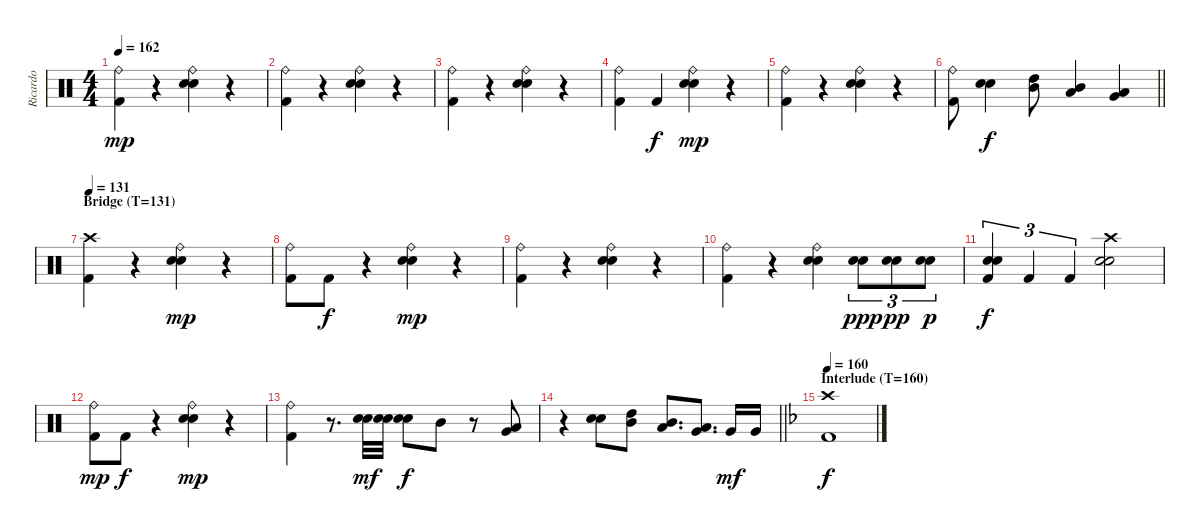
\track ("Ricardo" "Ricardo") {instrument percussion}
\staff {score}
\articulation defaults
\ts (4 4)
\tempo 162
\clef neutral
\ks c
("Ride (bell)" "Kick (hit) 2").4{dy mp} r.4 ("Ride (bell)" "Electric Snare (hit)" "Snare (hit) 2").4 r.4 |
("Ride (bell)" "Kick (hit) 2").4 r.4 ("Ride (bell)" "Electric Snare (hit)" "Snare (hit) 2").4 r.4 |
("Ride (bell)" "Kick (hit) 2").4 r.4 ("Ride (bell)" "Electric Snare (hit)" "Snare (hit) 2").4 r.4 |
("Ride (bell)" "Kick (hit) 2").4 "Kick (hit) 2".4{dy f} ("Ride (bell)" "Electric Snare (hit)" "Snare (hit) 2").4{dy mp} r.4 |
("Ride (bell)" "Kick (hit) 2").4 r.4 ("Ride (bell)" "Electric Snare (hit)" "Snare (hit) 2").4 r.4 |
\barLineRight lightlight
("Ride (bell)" "Kick (hit) 2").8 ("Electric Snare (hit)" "Snare (hit) 2").4{dy f} ("High Tom (hit)" "Mid Tom (hit)").8 ("Mid Tom (hit)" "Low Tom (hit)").4 ("Low Tom (hit)" "Very Low Tom (hit)").4 |
\section ("" "Bridge (T=131)")
\tempo 131
("Crash high (hit)" "Kick (hit) 2").4 r.4 ("Ride (bell)" "Electric Snare (hit)" "Snare (hit) 2").4{dy mp} r.4 |
("Ride (bell)" "Kick (hit) 2").8 "Kick (hit) 2".8{dy f} r.4 ("Ride (bell)" "Electric Snare (hit)" "Snare (hit) 2").4{dy mp} r.4 |
("Ride (bell)" "Kick (hit) 2").4 r.4 ("Ride (bell)" "Electric Snare (hit)" "Snare (hit) 2").4 r.4 |
("Ride (bell)" "Kick (hit) 2").4 r.4 ("Ride (bell)" "Electric Snare (hit)" "Snare (hit) 2").4 ("Electric Snare (hit)" "Snare (hit) 2").8{tu (3 2) dy ppp} ("Electric Snare (hit)" "Snare (hit) 2").8{tu (3 2) dy pp} ("Electric Snare (hit)" "Snare (hit) 2").8{tu (3 2) dy p} |
("Electric Snare (hit)" "Snare (hit) 2" "Kick (hit) 2").4{tu (3 2) dy f} "Kick (hit) 2".4{tu (3 2)} "Kick (hit) 2".4{tu (3 2)} ("Crash high (hit)" "Electric Snare (hit)" "Snare (hit) 2").2 |
("Ride (bell)" "Kick (hit) 2").8{dy mp} "Kick (hit) 2".8{dy f} r.4 ("Ride (bell)" "Electric Snare (hit)" "Snare (hit) 2").4{dy mp} r.4 |
("Ride (bell)" "Kick (hit) 2").4 r.8{d} ("Electric Snare (hit)" "Snare (hit) 2").32{dy mf} ("Electric Snare (hit)" "Snare (hit) 2").32 ("Electric Snare (hit)" "Snare (hit) 2").8{dy f} "Mid Tom (hit)".8 r.8 ("Low Tom (hit)" "Very Low Tom (hit)").8 |
\barLineRight lightlight
r.4 ("Electric Snare (hit)" "Snare (hit) 2").8 ("High Tom (hit)" "Mid Tom (hit)").8 ("Mid Tom (hit)" "Low Tom (hit)").8{d} ("Low Tom (hit)" "Very Low Tom (hit)").8{d} "Very Low Tom (hit)".16{dy mf} "Very Low Tom (hit)".16 |
\section ("" "Interlude (T=160)")
\tempo 160
\ks f
("Crash high (hit)" "Kick (hit) 2").1{dy f}
